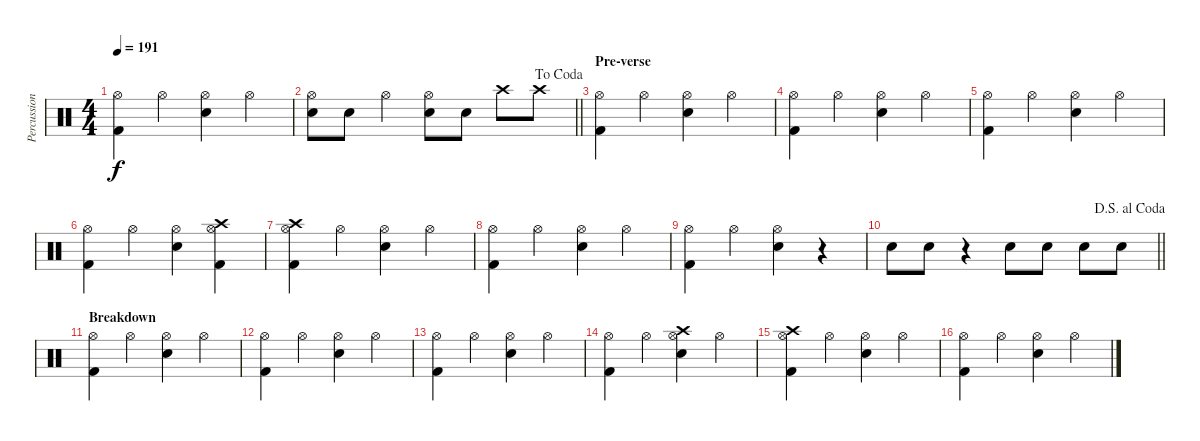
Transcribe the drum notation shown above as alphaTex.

\track ("Percussion" "Percussion") {instrument percussion}
\staff {score}
\articulation defaults
\ts (4 4)
\tempo 191
\clef neutral
\ks c
("Hi-Hat (open)" "Kick (hit) 2").4{dy f} "Hi-Hat (open)".4 ("Hi-Hat (open)" "Snare (hit) 2").4 "Hi-Hat (open)".4 |
\jump dacoda
\barLineRight lightlight
("Hi-Hat (open)" "Snare (hit) 2").8 "Snare (hit) 2".8 "Hi-Hat (open)".4 ("Hi-Hat (open)" "Snare (hit) 2").8 "Snare (hit) 2".8 "Crash high (hit)".8 "Crash high (hit)".8 |
\section ("" "Pre-verse")
("Hi-Hat (open)" "Kick (hit) 2").4 "Hi-Hat (open)".4 ("Hi-Hat (open)" "Snare (hit) 2").4 "Hi-Hat (open)".4 |
("Hi-Hat (open)" "Kick (hit) 2").4 "Hi-Hat (open)".4 ("Hi-Hat (open)" "Snare (hit) 2").4 "Hi-Hat (open)".4 |
("Hi-Hat (open)" "Kick (hit) 2").4 "Hi-Hat (open)".4 ("Hi-Hat (open)" "Snare (hit) 2").4 "Hi-Hat (open)".4 |
("Hi-Hat (open)" "Kick (hit) 2").4 "Hi-Hat (open)".4 ("Hi-Hat (open)" "Snare (hit) 2").4 ("Hi-Hat (open)" "Crash high (hit)" "Kick (hit) 2").4 |
("Hi-Hat (open)" "Crash high (hit)" "Kick (hit) 2").4 "Hi-Hat (open)".4 ("Hi-Hat (open)" "Snare (hit) 2").4 "Hi-Hat (open)".4 |
("Hi-Hat (open)" "Kick (hit) 2").4 "Hi-Hat (open)".4 ("Hi-Hat (open)" "Snare (hit) 2").4 "Hi-Hat (open)".4 |
("Hi-Hat (open)" "Kick (hit) 2").4 "Hi-Hat (open)".4 ("Hi-Hat (open)" "Snare (hit) 2").4 r.4 |
\jump dalsegnoalcoda
\barLineRight lightlight "Snare (hit) 2".8 "Snare (hit) 2".8
r.4 "Snare (hit) 2".8 "Snare (hit) 2".8 "Snare (hit) 2".8 "Snare (hit) 2".8 |
\section ("" "Breakdown")
("Hi-Hat (open)" "Kick (hit) 2").4 "Hi-Hat (open)".4 ("Hi-Hat (open)" "Snare (hit) 2").4 "Hi-Hat (open)".4 |
("Hi-Hat (open)" "Kick (hit) 2").4 "Hi-Hat (open)".4 ("Hi-Hat (open)" "Snare (hit) 2").4 "Hi-Hat (open)".4 |
("Hi-Hat (open)" "Kick (hit) 2").4 "Hi-Hat (open)".4 ("Hi-Hat (open)" "Snare (hit) 2").4 "Hi-Hat (open)".4 |
("Hi-Hat (open)" "Kick (hit) 2").4 "Hi-Hat (open)".4 ("Hi-Hat (open)" "Crash high (hit)" "Snare (hit) 2").4 "Hi-Hat (open)".4 |
("Hi-Hat (open)" "Crash high (hit)" "Kick (hit) 2").4 "Hi-Hat (open)".4 ("Hi-Hat (open)" "Snare (hit) 2").4 "Hi-Hat (open)".4 |
("Hi-Hat (open)" "Kick (hit) 2").4 "Hi-Hat (open)".4 ("Hi-Hat (open)" "Snare (hit) 2").4 "Hi-Hat (open)".4
